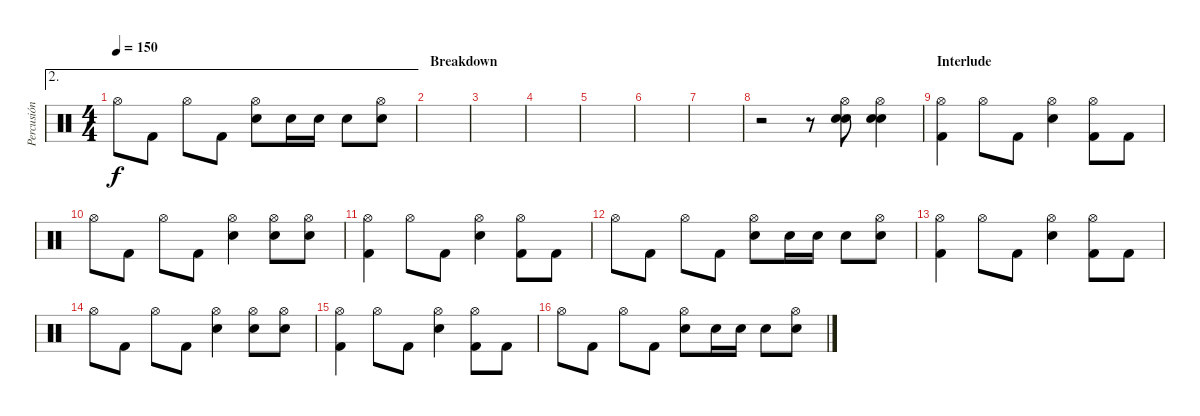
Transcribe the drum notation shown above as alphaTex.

\track ("Percusión" "Percusión") {instrument percussion}
\staff {score}
\articulation defaults
\ae 2
\ts (4 4)
\tempo 150
\clef neutral
\ks c "Hi-Hat (open)".8{dy f} "Kick (hit) 2".8 "Hi-Hat (open)".8 "Kick (hit) 2".8
("Hi-Hat (open)" "Electric Snare (hit)").8 "Electric Snare (hit)".16 "Electric Snare (hit)".16 "Electric Snare (hit)".8 ("Hi-Hat (open)" "Electric Snare (hit)").8 |
\section ("" "Breakdown")
|
|
|
|
|
|
r.2 r.8 ("Hi-Hat (open)" "Electric Snare (hit)" "Electric Snare (hit)").8 ("Hi-Hat (open)" "Electric Snare (hit)" "Electric Snare (hit)").4 |
\section ("" "Interlude")
("Hi-Hat (open)" "Kick (hit) 2").4 "Hi-Hat (open)".8 "Kick (hit) 2".8 ("Hi-Hat (open)" "Electric Snare (hit)").4 ("Hi-Hat (open)" "Kick (hit) 2").8 "Kick (hit) 2".8 |
"Hi-Hat (open)".8 "Kick (hit) 2".8 "Hi-Hat (open)".8 "Kick (hit) 2".8 ("Hi-Hat (open)" "Electric Snare (hit)").4 ("Hi-Hat (open)" "Electric Snare (hit)").8 ("Hi-Hat (open)" "Electric Snare (hit)").8 |
("Hi-Hat (open)" "Kick (hit) 2").4 "Hi-Hat (open)".8 "Kick (hit) 2".8 ("Hi-Hat (open)" "Electric Snare (hit)").4 ("Hi-Hat (open)" "Kick (hit) 2").8 "Kick (hit) 2".8 |
"Hi-Hat (open)".8 "Kick (hit) 2".8 "Hi-Hat (open)".8 "Kick (hit) 2".8 ("Hi-Hat (open)" "Electric Snare (hit)").8 "Electric Snare (hit)".16 "Electric Snare (hit)".16 "Electric Snare (hit)".8 ("Hi-Hat (open)" "Electric Snare (hit)").8 |
("Hi-Hat (open)" "Kick (hit) 2").4 "Hi-Hat (open)".8 "Kick (hit) 2".8 ("Hi-Hat (open)" "Electric Snare (hit)").4 ("Hi-Hat (open)" "Kick (hit) 2").8 "Kick (hit) 2".8 |
"Hi-Hat (open)".8 "Kick (hit) 2".8 "Hi-Hat (open)".8 "Kick (hit) 2".8 ("Hi-Hat (open)" "Electric Snare (hit)").4 ("Hi-Hat (open)" "Electric Snare (hit)").8 ("Hi-Hat (open)" "Electric Snare (hit)").8 |
("Hi-Hat (open)" "Kick (hit) 2").4 "Hi-Hat (open)".8 "Kick (hit) 2".8 ("Hi-Hat (open)" "Electric Snare (hit)").4 ("Hi-Hat (open)" "Kick (hit) 2").8 "Kick (hit) 2".8 |
"Hi-Hat (open)".8 "Kick (hit) 2".8 "Hi-Hat (open)".8 "Kick (hit) 2".8 ("Hi-Hat (open)" "Electric Snare (hit)").8 "Electric Snare (hit)".16 "Electric Snare (hit)".16 "Electric Snare (hit)".8 ("Hi-Hat (open)" "Electric Snare (hit)").8
